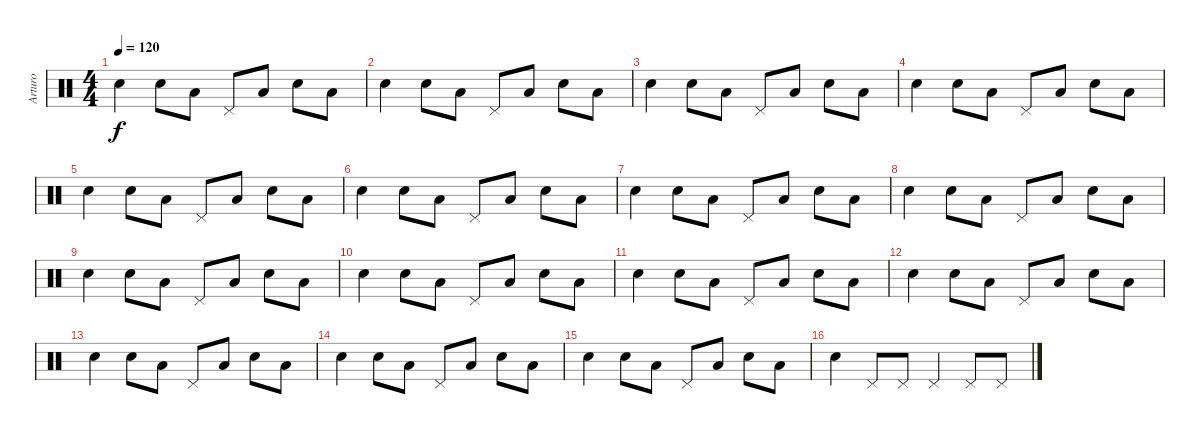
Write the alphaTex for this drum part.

\track ("Arturo" "Arturo") {instrument percussion}
\staff {score}
\articulation defaults
\ts (4 4)
\tempo 120
\clef neutral
\ks c "Snare (hit) 2".4{dy f} "Snare (hit) 2".8 "Low Tom (hit)".8 "Pedal Hi-Hat (hit)".8 "Low Tom (hit)".8 "Snare (hit) 2".8 "Low Tom (hit)".8
|
"Snare (hit) 2".4 "Snare (hit) 2".8 "Low Tom (hit)".8 "Pedal Hi-Hat (hit)".8 "Low Tom (hit)".8 "Snare (hit) 2".8 "Low Tom (hit)".8 |
"Snare (hit) 2".4 "Snare (hit) 2".8 "Low Tom (hit)".8 "Pedal Hi-Hat (hit)".8 "Low Tom (hit)".8 "Snare (hit) 2".8 "Low Tom (hit)".8 |
"Snare (hit) 2".4 "Snare (hit) 2".8 "Low Tom (hit)".8 "Pedal Hi-Hat (hit)".8 "Low Tom (hit)".8 "Snare (hit) 2".8 "Low Tom (hit)".8 |
"Snare (hit) 2".4 "Snare (hit) 2".8 "Low Tom (hit)".8 "Pedal Hi-Hat (hit)".8 "Low Tom (hit)".8 "Snare (hit) 2".8 "Low Tom (hit)".8 |
"Snare (hit) 2".4 "Snare (hit) 2".8 "Low Tom (hit)".8 "Pedal Hi-Hat (hit)".8 "Low Tom (hit)".8 "Snare (hit) 2".8 "Low Tom (hit)".8 |
"Snare (hit) 2".4 "Snare (hit) 2".8 "Low Tom (hit)".8 "Pedal Hi-Hat (hit)".8 "Low Tom (hit)".8 "Snare (hit) 2".8 "Low Tom (hit)".8 |
"Snare (hit) 2".4 "Snare (hit) 2".8 "Low Tom (hit)".8 "Pedal Hi-Hat (hit)".8 "Low Tom (hit)".8 "Snare (hit) 2".8 "Low Tom (hit)".8 |
"Snare (hit) 2".4 "Snare (hit) 2".8 "Low Tom (hit)".8 "Pedal Hi-Hat (hit)".8 "Low Tom (hit)".8 "Snare (hit) 2".8 "Low Tom (hit)".8 |
"Snare (hit) 2".4 "Snare (hit) 2".8 "Low Tom (hit)".8 "Pedal Hi-Hat (hit)".8 "Low Tom (hit)".8 "Snare (hit) 2".8 "Low Tom (hit)".8 |
"Snare (hit) 2".4 "Snare (hit) 2".8 "Low Tom (hit)".8 "Pedal Hi-Hat (hit)".8 "Low Tom (hit)".8 "Snare (hit) 2".8 "Low Tom (hit)".8 |
"Snare (hit) 2".4 "Snare (hit) 2".8 "Low Tom (hit)".8 "Pedal Hi-Hat (hit)".8 "Low Tom (hit)".8 "Snare (hit) 2".8 "Low Tom (hit)".8 |
"Snare (hit) 2".4 "Snare (hit) 2".8 "Low Tom (hit)".8 "Pedal Hi-Hat (hit)".8 "Low Tom (hit)".8 "Snare (hit) 2".8 "Low Tom (hit)".8 |
"Snare (hit) 2".4 "Snare (hit) 2".8 "Low Tom (hit)".8 "Pedal Hi-Hat (hit)".8 "Low Tom (hit)".8 "Snare (hit) 2".8 "Low Tom (hit)".8 |
"Snare (hit) 2".4 "Snare (hit) 2".8 "Low Tom (hit)".8 "Pedal Hi-Hat (hit)".8 "Low Tom (hit)".8 "Snare (hit) 2".8 "Low Tom (hit)".8 |
"Snare (hit) 2".4 "Pedal Hi-Hat (hit)".8 "Pedal Hi-Hat (hit)".8 "Pedal Hi-Hat (hit)".4 "Pedal Hi-Hat (hit)".8 "Pedal Hi-Hat (hit)".8
